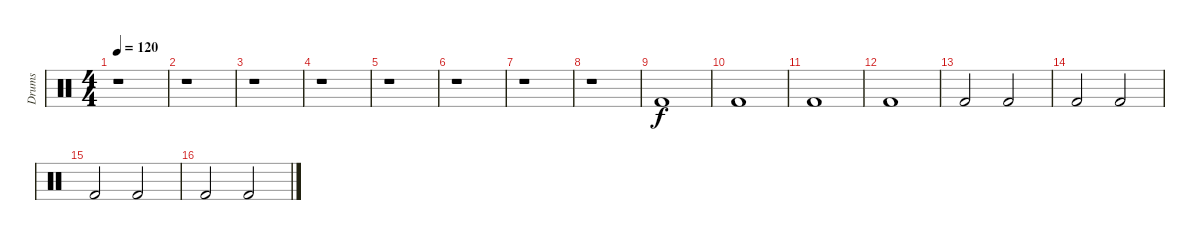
\track ("Drums" "Drums") {instrument percussion}
\staff {score}
\articulation defaults
\ts (4 4)
\tempo 120
\clef neutral
\ks c
r.1{dy f} |
r.1 |
r.1 |
r.1 |
r.1 |
r.1 |
r.1 |
r.1 |
"Kick (hit) 2".1 |
"Kick (hit) 2".1 |
"Kick (hit) 2".1 |
"Kick (hit) 2".1 |
"Kick (hit) 2".2 "Kick (hit) 2".2 |
"Kick (hit) 2".2 "Kick (hit) 2".2 |
"Kick (hit) 2".2 "Kick (hit) 2".2 |
"Kick (hit) 2".2 "Kick (hit) 2".2
